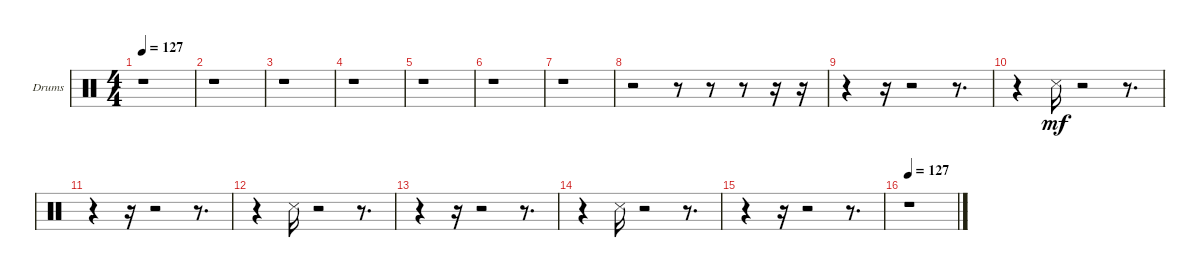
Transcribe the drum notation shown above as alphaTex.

\bracketExtendMode groupsimilarinstruments
\firstSystemTrackNameOrientation horizontal
\otherSystemsTrackNameOrientation horizontal
\track ("Drum Snare" "Drums") {instrument percussion}
\staff {score}
\articulation defaults
\ts (4 4)
\tempo 127
\clef neutral
\ks c
r.1{dy mf} |
r.1 |
r.1 |
r.1 |
r.1 |
r.1 |
r.1 |
r.2 r.8 r.8 r.8 r.16 r.16 |
r.4 r.16 r.2 r.8{d} |
r.4 "Snare (side stick) 3".16 r.2 r.8{d} |
r.4 r.16 r.2 r.8{d} |
r.4 "Snare (side stick) 3".16 r.2 r.8{d} |
r.4 r.16 r.2 r.8{d} |
r.4 "Snare (side stick) 3".16 r.2 r.8{d} |
r.4 r.16 r.2 r.8{d} |
\tempo 127
r.1
